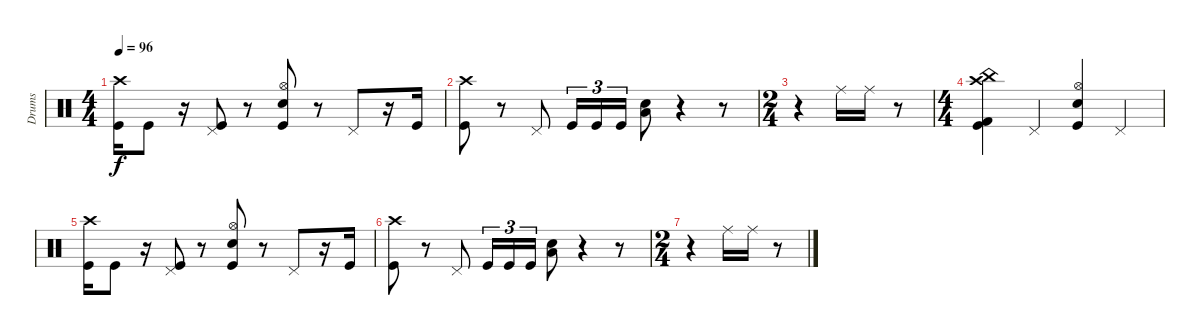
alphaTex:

\track ("Drums" "Drums") {instrument percussion}
\staff {score}
\articulation defaults
\ts (4 4)
\tempo 96
\clef neutral
\ks c
("Crash high (hit)" "Kick (hit)").16{dy f} "Kick (hit)".8 r.16 ("Pedal Hi-Hat (hit)" "Kick (hit)").8 r.8 ("Hi-Hat (open)" "Electric Snare (hit)" "Kick (hit)").8 r.8 "Pedal Hi-Hat (hit)".8 r.16 "Kick (hit)".16 |
("Crash high (hit)" "Kick (hit)").8 r.8 "Pedal Hi-Hat (hit)".8 "Kick (hit)".16{tu (3 2)} "Kick (hit)".16{tu (3 2)} "Kick (hit)".16{tu (3 2)} ("Electric Snare (hit)" "Low Floor Tom (hit)").8 r.4 r.8 |
\ts (2 4)
r.4 "Ride (middle)".16 "Ride (middle)".16 r.8 |
\ts (4 4)
("Crash high (hit)" "China (hit)" "Kick (hit) 2" "Kick (hit)").4 "Pedal Hi-Hat (hit)".4 ("Hi-Hat (open)" "Electric Snare (hit)" "Kick (hit)").4 "Pedal Hi-Hat (hit)".4 |
("Crash high (hit)" "Kick (hit)").16 "Kick (hit)".8 r.16 ("Pedal Hi-Hat (hit)" "Kick (hit)").8 r.8 ("Hi-Hat (open)" "Electric Snare (hit)" "Kick (hit)").8 r.8 "Pedal Hi-Hat (hit)".8 r.16 "Kick (hit)".16 |
("Crash high (hit)" "Kick (hit)").8 r.8 "Pedal Hi-Hat (hit)".8 "Kick (hit)".16{tu (3 2)} "Kick (hit)".16{tu (3 2)} "Kick (hit)".16{tu (3 2)} ("Electric Snare (hit)" "Low Floor Tom (hit)").8 r.4 r.8 |
\ts (2 4)
r.4 "Ride (middle)".16 "Ride (middle)".16 r.8
